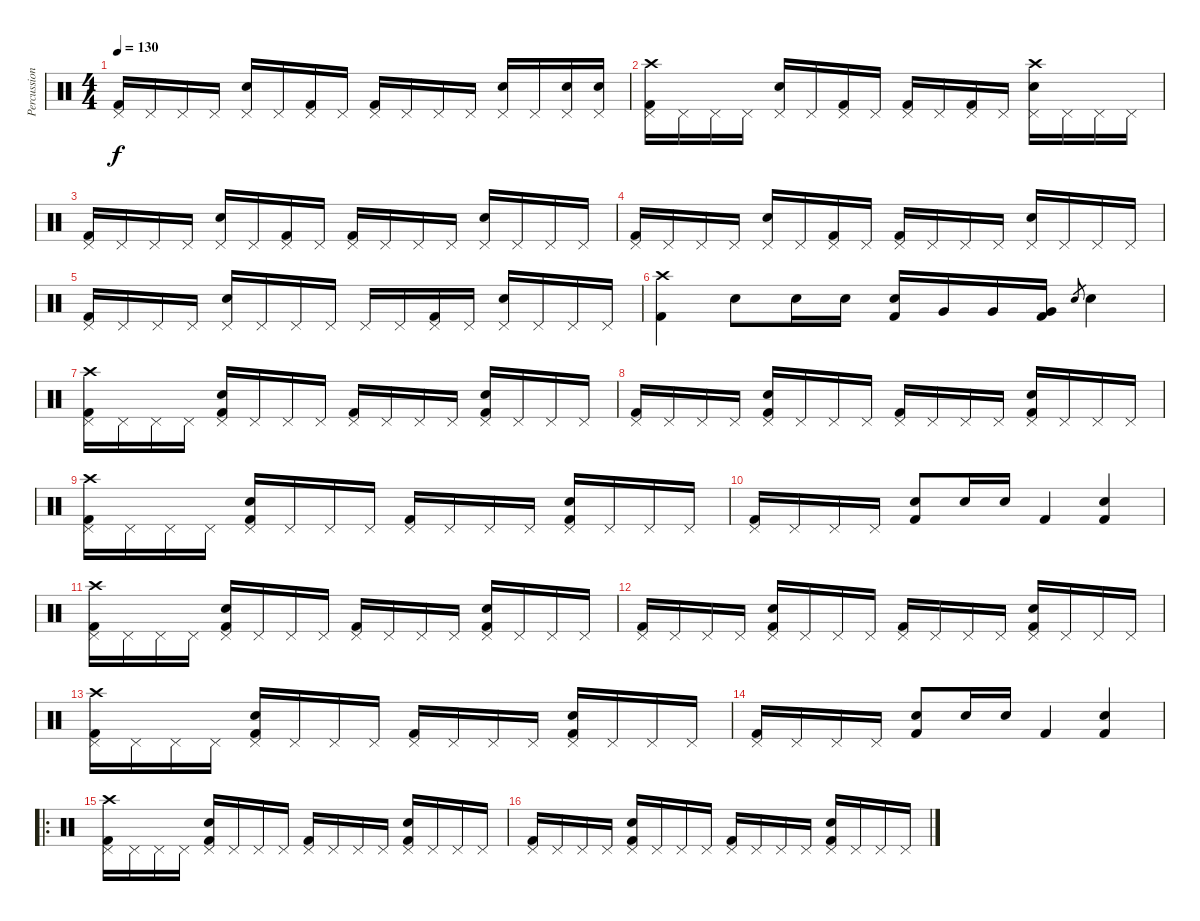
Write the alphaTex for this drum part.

\track ("Percussion" "Percussion") {instrument percussion}
\staff {score}
\articulation defaults
\ts (4 4)
\tempo 130
\clef neutral
\ks c
("Pedal Hi-Hat (hit)" "Kick (hit) 2").16{dy f} "Pedal Hi-Hat (hit)".16 "Pedal Hi-Hat (hit)".16 "Pedal Hi-Hat (hit)".16 ("Pedal Hi-Hat (hit)" "Snare (hit) 2").16 "Pedal Hi-Hat (hit)".16 ("Pedal Hi-Hat (hit)" "Kick (hit) 2").16 "Pedal Hi-Hat (hit)".16 ("Pedal Hi-Hat (hit)" "Kick (hit) 2").16 "Pedal Hi-Hat (hit)".16 "Pedal Hi-Hat (hit)".16 "Pedal Hi-Hat (hit)".16 ("Pedal Hi-Hat (hit)" "Snare (hit) 2").16 "Pedal Hi-Hat (hit)".16 ("Pedal Hi-Hat (hit)" "Snare (hit) 2").16 ("Pedal Hi-Hat (hit)" "Snare (hit) 2").16 |
("Pedal Hi-Hat (hit)" "Crash high (hit)" "Kick (hit) 2").16 "Pedal Hi-Hat (hit)".16 "Pedal Hi-Hat (hit)".16 "Pedal Hi-Hat (hit)".16 ("Pedal Hi-Hat (hit)" "Snare (hit) 2").16 "Pedal Hi-Hat (hit)".16 ("Pedal Hi-Hat (hit)" "Kick (hit) 2").16 "Pedal Hi-Hat (hit)".16 ("Pedal Hi-Hat (hit)" "Kick (hit) 2").16 "Pedal Hi-Hat (hit)".16 ("Pedal Hi-Hat (hit)" "Kick (hit) 2").16 "Pedal Hi-Hat (hit)".16 ("Pedal Hi-Hat (hit)" "Crash high (hit)" "Snare (hit) 2").16 "Pedal Hi-Hat (hit)".16 "Pedal Hi-Hat (hit)".16 "Pedal Hi-Hat (hit)".16 |
("Pedal Hi-Hat (hit)" "Kick (hit) 2").16 "Pedal Hi-Hat (hit)".16 "Pedal Hi-Hat (hit)".16 "Pedal Hi-Hat (hit)".16 ("Pedal Hi-Hat (hit)" "Snare (hit) 2").16 "Pedal Hi-Hat (hit)".16 ("Pedal Hi-Hat (hit)" "Kick (hit) 2").16 "Pedal Hi-Hat (hit)".16 ("Pedal Hi-Hat (hit)" "Kick (hit) 2").16 "Pedal Hi-Hat (hit)".16 "Pedal Hi-Hat (hit)".16 "Pedal Hi-Hat (hit)".16 ("Pedal Hi-Hat (hit)" "Snare (hit) 2").16 "Pedal Hi-Hat (hit)".16 "Pedal Hi-Hat (hit)".16 "Pedal Hi-Hat (hit)".16 |
("Pedal Hi-Hat (hit)" "Kick (hit) 2").16 "Pedal Hi-Hat (hit)".16 "Pedal Hi-Hat (hit)".16 "Pedal Hi-Hat (hit)".16 ("Pedal Hi-Hat (hit)" "Snare (hit) 2").16 "Pedal Hi-Hat (hit)".16 ("Pedal Hi-Hat (hit)" "Kick (hit) 2").16 "Pedal Hi-Hat (hit)".16 ("Pedal Hi-Hat (hit)" "Kick (hit) 2").16 "Pedal Hi-Hat (hit)".16 "Pedal Hi-Hat (hit)".16 "Pedal Hi-Hat (hit)".16 ("Pedal Hi-Hat (hit)" "Snare (hit) 2").16 "Pedal Hi-Hat (hit)".16 "Pedal Hi-Hat (hit)".16 "Pedal Hi-Hat (hit)".16 |
("Pedal Hi-Hat (hit)" "Kick (hit) 2").16 "Pedal Hi-Hat (hit)".16 "Pedal Hi-Hat (hit)".16 "Pedal Hi-Hat (hit)".16 ("Pedal Hi-Hat (hit)" "Snare (hit) 2").16 "Pedal Hi-Hat (hit)".16 "Pedal Hi-Hat (hit)".16 "Pedal Hi-Hat (hit)".16 "Pedal Hi-Hat (hit)".16 "Pedal Hi-Hat (hit)".16 ("Pedal Hi-Hat (hit)" "Kick (hit) 2").16 "Pedal Hi-Hat (hit)".16 ("Pedal Hi-Hat (hit)" "Snare (hit) 2").16 "Pedal Hi-Hat (hit)".16 "Pedal Hi-Hat (hit)".16 "Pedal Hi-Hat (hit)".16 |
("Crash high (hit)" "Kick (hit) 2").4 "Snare (hit) 2".8 "Snare (hit) 2".16 "Snare (hit) 2".16 ("Snare (hit) 2" "Kick (hit) 2").16 "Very Low Tom (hit)".16 "Very Low Tom (hit)".16 ("Very Low Tom (hit)" "Kick (hit) 2").16 "Snare (hit) 2".8{gr} "Snare (hit) 2".4 |
("Pedal Hi-Hat (hit)" "Crash high (hit)" "Kick (hit) 2").16 "Pedal Hi-Hat (hit)".16 "Pedal Hi-Hat (hit)".16 "Pedal Hi-Hat (hit)".16 ("Pedal Hi-Hat (hit)" "Snare (hit) 2" "Kick (hit) 2").16 "Pedal Hi-Hat (hit)".16 "Pedal Hi-Hat (hit)".16 "Pedal Hi-Hat (hit)".16 ("Pedal Hi-Hat (hit)" "Kick (hit) 2").16 "Pedal Hi-Hat (hit)".16 "Pedal Hi-Hat (hit)".16 "Pedal Hi-Hat (hit)".16 ("Pedal Hi-Hat (hit)" "Snare (hit) 2" "Kick (hit) 2").16 "Pedal Hi-Hat (hit)".16 "Pedal Hi-Hat (hit)".16 "Pedal Hi-Hat (hit)".16 |
("Pedal Hi-Hat (hit)" "Kick (hit) 2").16 "Pedal Hi-Hat (hit)".16 "Pedal Hi-Hat (hit)".16 "Pedal Hi-Hat (hit)".16 ("Pedal Hi-Hat (hit)" "Snare (hit) 2" "Kick (hit) 2").16 "Pedal Hi-Hat (hit)".16 "Pedal Hi-Hat (hit)".16 "Pedal Hi-Hat (hit)".16 ("Pedal Hi-Hat (hit)" "Kick (hit) 2").16 "Pedal Hi-Hat (hit)".16 "Pedal Hi-Hat (hit)".16 "Pedal Hi-Hat (hit)".16 ("Pedal Hi-Hat (hit)" "Snare (hit) 2" "Kick (hit) 2").16 "Pedal Hi-Hat (hit)".16 "Pedal Hi-Hat (hit)".16 "Pedal Hi-Hat (hit)".16 |
("Pedal Hi-Hat (hit)" "Crash high (hit)" "Kick (hit) 2").16 "Pedal Hi-Hat (hit)".16 "Pedal Hi-Hat (hit)".16 "Pedal Hi-Hat (hit)".16 ("Pedal Hi-Hat (hit)" "Snare (hit) 2" "Kick (hit) 2").16 "Pedal Hi-Hat (hit)".16 "Pedal Hi-Hat (hit)".16 "Pedal Hi-Hat (hit)".16 ("Pedal Hi-Hat (hit)" "Kick (hit) 2").16 "Pedal Hi-Hat (hit)".16 "Pedal Hi-Hat (hit)".16 "Pedal Hi-Hat (hit)".16 ("Pedal Hi-Hat (hit)" "Snare (hit) 2" "Kick (hit) 2").16 "Pedal Hi-Hat (hit)".16 "Pedal Hi-Hat (hit)".16 "Pedal Hi-Hat (hit)".16 |
("Pedal Hi-Hat (hit)" "Kick (hit) 2").16 "Pedal Hi-Hat (hit)".16 "Pedal Hi-Hat (hit)".16 "Pedal Hi-Hat (hit)".16 ("Snare (hit) 2" "Kick (hit) 2").8 "Snare (hit) 2".16 "Snare (hit) 2".16 "Kick (hit) 2".4 ("Snare (hit) 2" "Kick (hit) 2").4 |
("Pedal Hi-Hat (hit)" "Crash high (hit)" "Kick (hit) 2").16 "Pedal Hi-Hat (hit)".16 "Pedal Hi-Hat (hit)".16 "Pedal Hi-Hat (hit)".16 ("Pedal Hi-Hat (hit)" "Snare (hit) 2" "Kick (hit) 2").16 "Pedal Hi-Hat (hit)".16 "Pedal Hi-Hat (hit)".16 "Pedal Hi-Hat (hit)".16 ("Pedal Hi-Hat (hit)" "Kick (hit) 2").16 "Pedal Hi-Hat (hit)".16 "Pedal Hi-Hat (hit)".16 "Pedal Hi-Hat (hit)".16 ("Pedal Hi-Hat (hit)" "Snare (hit) 2" "Kick (hit) 2").16 "Pedal Hi-Hat (hit)".16 "Pedal Hi-Hat (hit)".16 "Pedal Hi-Hat (hit)".16 |
("Pedal Hi-Hat (hit)" "Kick (hit) 2").16 "Pedal Hi-Hat (hit)".16 "Pedal Hi-Hat (hit)".16 "Pedal Hi-Hat (hit)".16 ("Pedal Hi-Hat (hit)" "Snare (hit) 2" "Kick (hit) 2").16 "Pedal Hi-Hat (hit)".16 "Pedal Hi-Hat (hit)".16 "Pedal Hi-Hat (hit)".16 ("Pedal Hi-Hat (hit)" "Kick (hit) 2").16 "Pedal Hi-Hat (hit)".16 "Pedal Hi-Hat (hit)".16 "Pedal Hi-Hat (hit)".16 ("Pedal Hi-Hat (hit)" "Snare (hit) 2" "Kick (hit) 2").16 "Pedal Hi-Hat (hit)".16 "Pedal Hi-Hat (hit)".16 "Pedal Hi-Hat (hit)".16 |
("Pedal Hi-Hat (hit)" "Crash high (hit)" "Kick (hit) 2").16 "Pedal Hi-Hat (hit)".16 "Pedal Hi-Hat (hit)".16 "Pedal Hi-Hat (hit)".16 ("Pedal Hi-Hat (hit)" "Snare (hit) 2" "Kick (hit) 2").16 "Pedal Hi-Hat (hit)".16 "Pedal Hi-Hat (hit)".16 "Pedal Hi-Hat (hit)".16 ("Pedal Hi-Hat (hit)" "Kick (hit) 2").16 "Pedal Hi-Hat (hit)".16 "Pedal Hi-Hat (hit)".16 "Pedal Hi-Hat (hit)".16 ("Pedal Hi-Hat (hit)" "Snare (hit) 2" "Kick (hit) 2").16 "Pedal Hi-Hat (hit)".16 "Pedal Hi-Hat (hit)".16 "Pedal Hi-Hat (hit)".16 |
("Pedal Hi-Hat (hit)" "Kick (hit) 2").16 "Pedal Hi-Hat (hit)".16 "Pedal Hi-Hat (hit)".16 "Pedal Hi-Hat (hit)".16 ("Snare (hit) 2" "Kick (hit) 2").8 "Snare (hit) 2".16 "Snare (hit) 2".16 "Kick (hit) 2".4 ("Snare (hit) 2" "Kick (hit) 2").4 |
\ro
("Pedal Hi-Hat (hit)" "Crash high (hit)" "Kick (hit) 2").16 "Pedal Hi-Hat (hit)".16 "Pedal Hi-Hat (hit)".16 "Pedal Hi-Hat (hit)".16 ("Pedal Hi-Hat (hit)" "Snare (hit) 2" "Kick (hit) 2").16 "Pedal Hi-Hat (hit)".16 "Pedal Hi-Hat (hit)".16 "Pedal Hi-Hat (hit)".16 ("Pedal Hi-Hat (hit)" "Kick (hit) 2").16 "Pedal Hi-Hat (hit)".16 "Pedal Hi-Hat (hit)".16 "Pedal Hi-Hat (hit)".16 ("Pedal Hi-Hat (hit)" "Snare (hit) 2" "Kick (hit) 2").16 "Pedal Hi-Hat (hit)".16 "Pedal Hi-Hat (hit)".16 "Pedal Hi-Hat (hit)".16 |
("Pedal Hi-Hat (hit)" "Kick (hit) 2").16 "Pedal Hi-Hat (hit)".16 "Pedal Hi-Hat (hit)".16 "Pedal Hi-Hat (hit)".16 ("Pedal Hi-Hat (hit)" "Snare (hit) 2" "Kick (hit) 2").16 "Pedal Hi-Hat (hit)".16 "Pedal Hi-Hat (hit)".16 "Pedal Hi-Hat (hit)".16 ("Pedal Hi-Hat (hit)" "Kick (hit) 2").16 "Pedal Hi-Hat (hit)".16 "Pedal Hi-Hat (hit)".16 "Pedal Hi-Hat (hit)".16 ("Pedal Hi-Hat (hit)" "Snare (hit) 2" "Kick (hit) 2").16 "Pedal Hi-Hat (hit)".16 "Pedal Hi-Hat (hit)".16 "Pedal Hi-Hat (hit)".16
